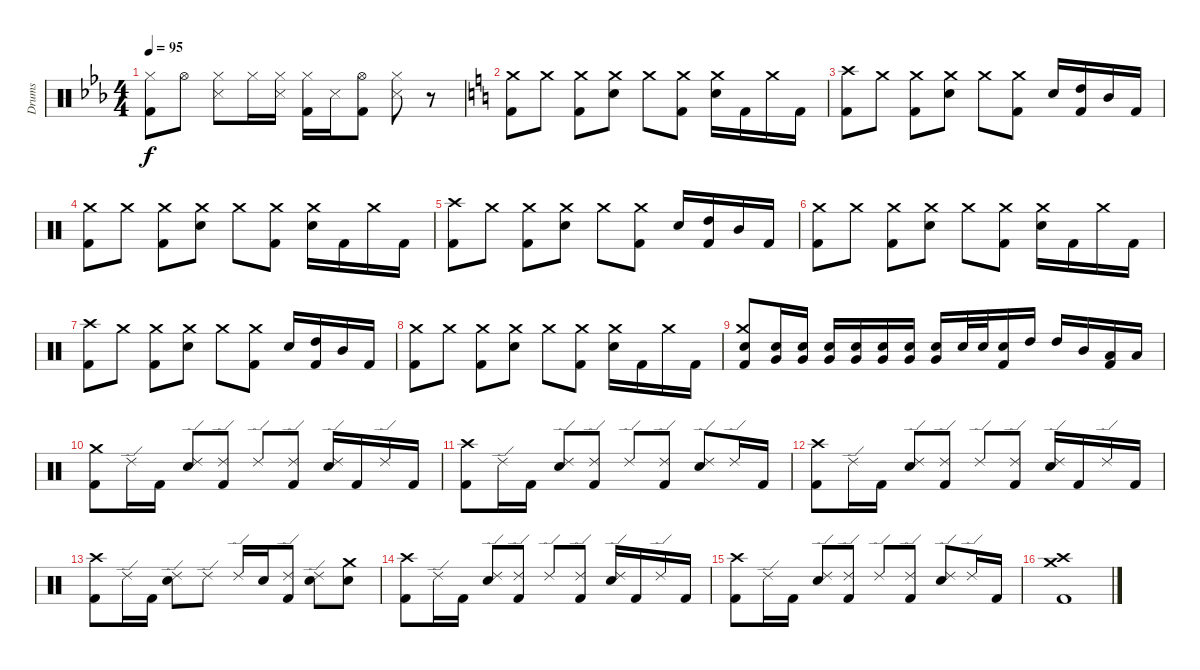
\track ("Drums" "Drums") {instrument percussion}
\staff {score}
\articulation defaults
\ts (4 4)
\tempo 95
\clef neutral
\ks eb
("Hi-Hat (closed)" "Kick (hit) 2").8{dy f} "Hi-Hat (open)".8 ("Hi-Hat (closed)" "Snare (side stick) 3").8 "Hi-Hat (closed)".16 ("Hi-Hat (closed)" "Snare (side stick) 3").16 ("Hi-Hat (closed)" "Kick (hit) 2").16 "Snare (side stick) 3".16 ("Hi-Hat (open)" "Kick (hit) 2").8 ("Hi-Hat (closed)" "Snare (side stick) 3").8 r.8 |
\ks c
("Crash medium (hit)" "Kick (hit) 2").8 "Crash medium (hit)".8 ("Crash medium (hit)" "Kick (hit) 2").8 ("Crash medium (hit)" "Snare (hit) 2").8 "Crash medium (hit)".8 ("Crash medium (hit)" "Kick (hit) 2").8 ("Crash medium (hit)" "Snare (hit) 2").16 "Kick (hit) 2".16 "Crash medium (hit)".16 "Kick (hit) 2".16 |
("Crash high (hit)" "Kick (hit) 2").8 "Crash medium (hit)".8 ("Crash medium (hit)" "Kick (hit) 2").8 ("Crash medium (hit)" "Snare (hit) 2").8 "Crash medium (hit)".8 ("Crash medium (hit)" "Kick (hit) 2").8 "Snare (hit) 2".16 ("High Tom (hit)" "Kick (hit) 2").16 "Mid Tom (hit)".16 "Kick (hit) 2".16 |
("Crash medium (hit)" "Kick (hit) 2").8 "Crash medium (hit)".8 ("Crash medium (hit)" "Kick (hit) 2").8 ("Crash medium (hit)" "Snare (hit) 2").8 "Crash medium (hit)".8 ("Crash medium (hit)" "Kick (hit) 2").8 ("Crash medium (hit)" "Snare (hit) 2").16 "Kick (hit) 2".16 "Crash medium (hit)".16 "Kick (hit) 2".16 |
("Crash high (hit)" "Kick (hit) 2").8 "Crash medium (hit)".8 ("Crash medium (hit)" "Kick (hit) 2").8 ("Crash medium (hit)" "Snare (hit) 2").8 "Crash medium (hit)".8 ("Crash medium (hit)" "Kick (hit) 2").8 "Snare (hit) 2".16 ("High Tom (hit)" "Kick (hit) 2").16 "Mid Tom (hit)".16 "Kick (hit) 2".16 |
("Crash medium (hit)" "Kick (hit) 2").8 "Crash medium (hit)".8 ("Crash medium (hit)" "Kick (hit) 2").8 ("Crash medium (hit)" "Snare (hit) 2").8 "Crash medium (hit)".8 ("Crash medium (hit)" "Kick (hit) 2").8 ("Crash medium (hit)" "Snare (hit) 2").16 "Kick (hit) 2".16 "Crash medium (hit)".16 "Kick (hit) 2".16 |
("Crash high (hit)" "Kick (hit) 2").8 "Crash medium (hit)".8 ("Crash medium (hit)" "Kick (hit) 2").8 ("Crash medium (hit)" "Snare (hit) 2").8 "Crash medium (hit)".8 ("Crash medium (hit)" "Kick (hit) 2").8 "Snare (hit) 2".16 ("High Tom (hit)" "Kick (hit) 2").16 "Mid Tom (hit)".16 "Kick (hit) 2".16 |
("Crash medium (hit)" "Kick (hit) 2").8 "Crash medium (hit)".8 ("Crash medium (hit)" "Kick (hit) 2").8 ("Crash medium (hit)" "Snare (hit) 2").8 "Crash medium (hit)".8 ("Crash medium (hit)" "Kick (hit) 2").8 ("Crash medium (hit)" "Snare (hit) 2").16 "Kick (hit) 2".16 "Crash medium (hit)".16 "Kick (hit) 2".16 |
("Crash medium (hit)" "Snare (hit) 2" "Kick (hit) 2").8 ("Snare (hit) 2" "Very Low Tom (hit)").16 ("Snare (hit) 2" "Very Low Tom (hit)").16 ("Snare (hit) 2" "Very Low Tom (hit)").16 ("Snare (hit) 2" "Very Low Tom (hit)").16 ("Snare (hit) 2" "Very Low Tom (hit)").16 ("Snare (hit) 2" "Very Low Tom (hit)").16 ("Snare (hit) 2" "Very Low Tom (hit)").16 "Snare (hit) 2".32 "Snare (hit) 2".32 ("Snare (hit) 2" "Kick (hit) 2").16 "High Tom (hit)".16 "High Tom (hit)".16 "Mid Tom (hit)".16 ("Low Tom (hit)" "Kick (hit) 2").16 "Low Floor Tom (hit)".16 |
("Crash medium (hit)" "Kick (hit) 2").8 "Ride (edge) 2".16 "Kick (hit) 2".16 ("Ride (edge) 2" "Snare (hit) 2").8 ("Ride (edge) 2" "Kick (hit) 2").8 "Ride (edge) 2".8 ("Ride (edge) 2" "Kick (hit) 2").8 ("Ride (edge) 2" "Snare (hit) 2").16 "Kick (hit) 2".16 "Ride (edge) 2".16 "Kick (hit) 2".16 |
("Crash high (hit)" "Kick (hit) 2").8 "Ride (edge) 2".16 "Kick (hit) 2".16 ("Ride (edge) 2" "Snare (hit) 2").8 ("Ride (edge) 2" "Kick (hit) 2").8 "Ride (edge) 2".8 ("Ride (edge) 2" "Kick (hit) 2").8 ("Ride (edge) 2" "Snare (hit) 2").8 "Ride (edge) 2".16 "Kick (hit) 2".16 |
("Crash high (hit)" "Kick (hit) 2").8 "Ride (edge) 2".16 "Kick (hit) 2".16 ("Ride (edge) 2" "Snare (hit) 2").8 ("Ride (edge) 2" "Kick (hit) 2").8 "Ride (edge) 2".8 ("Ride (edge) 2" "Kick (hit) 2").8 ("Ride (edge) 2" "Snare (hit) 2").16 "Kick (hit) 2".16 "Ride (edge) 2".16 "Kick (hit) 2".16 |
("Crash high (hit)" "Kick (hit) 2").8 "Ride (edge) 2".16 "Kick (hit) 2".16 ("Ride (edge) 2" "Snare (hit) 2").8 "Ride (edge) 2".8 "Ride (edge) 2".16 "Snare (hit) 2".16 ("Ride (edge) 2" "Kick (hit) 2").8 ("Ride (edge) 2" "Snare (hit) 2").8 ("Crash medium (hit)" "Snare (hit) 2").8 |
("Crash high (hit)" "Kick (hit) 2").8 "Ride (edge) 2".16 "Kick (hit) 2".16 ("Ride (edge) 2" "Snare (hit) 2").8 ("Ride (edge) 2" "Kick (hit) 2").8 "Ride (edge) 2".8 ("Ride (edge) 2" "Kick (hit) 2").8 ("Ride (edge) 2" "Snare (hit) 2").16 "Kick (hit) 2".16 "Ride (edge) 2".16 "Kick (hit) 2".16 |
("Crash high (hit)" "Kick (hit) 2").8 "Ride (edge) 2".16 "Kick (hit) 2".16 ("Ride (edge) 2" "Snare (hit) 2").8 ("Ride (edge) 2" "Kick (hit) 2").8 "Ride (edge) 2".8 ("Ride (edge) 2" "Kick (hit) 2").8 ("Ride (edge) 2" "Snare (hit) 2").8 "Ride (edge) 2".16 "Kick (hit) 2".16 |
("Crash medium (hit)" "Crash high (hit)" "Kick (hit) 2").1
